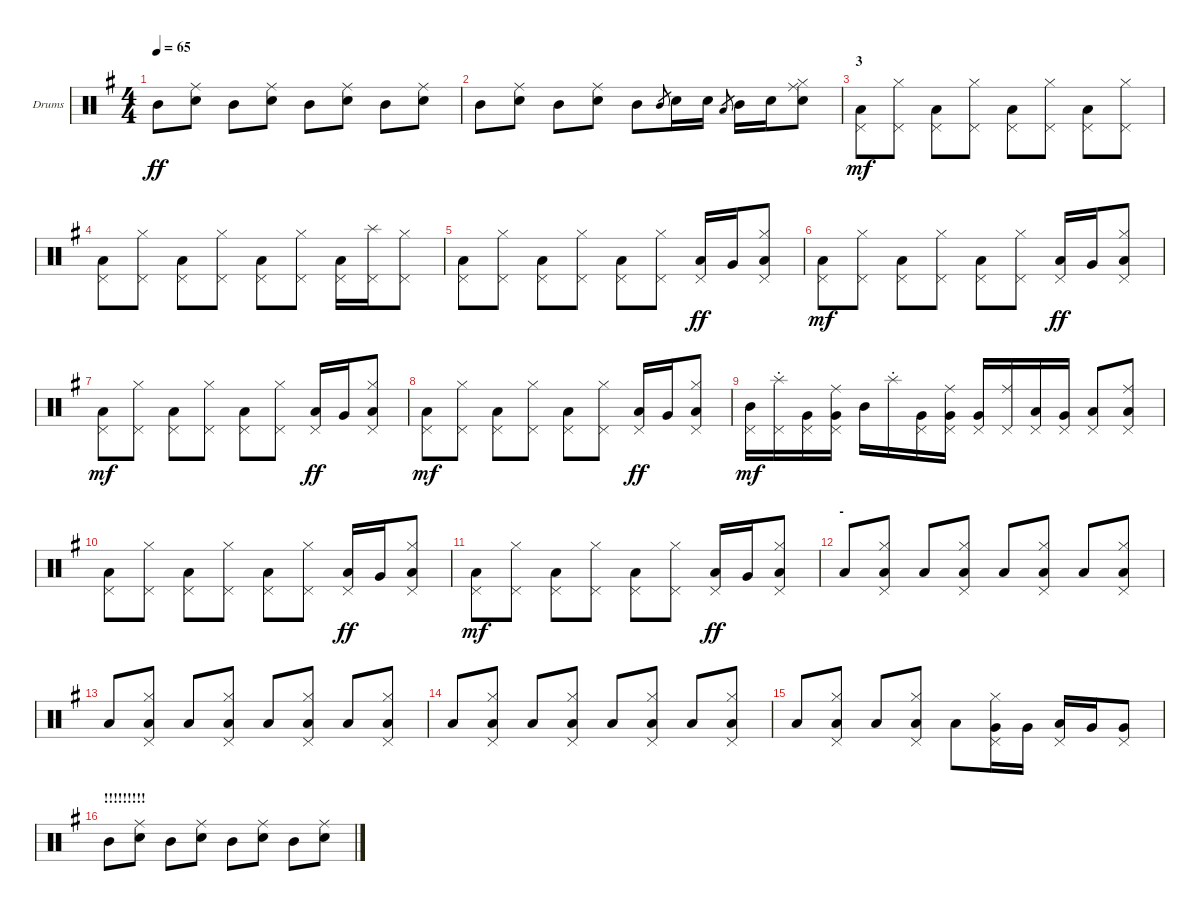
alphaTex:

\defaultSystemsLayout 4
\bracketExtendMode groupsimilarinstruments
\firstSystemTrackNameOrientation horizontal
\otherSystemsTrackNameOrientation horizontal
\track ("Drumkit" "Drums") {instrument percussion}
\staff {score}
\articulation defaults
\ts (4 4)
\tempo 65
\clef neutral
\ks eminor "Mid Tom (hit)".8{dy ff}
("Snare (hit) 2" "Ride (middle)").8 "Mid Tom (hit)".8 ("Snare (hit) 2" "Ride (middle)").8 "Mid Tom (hit)".8 ("Snare (hit) 2" "Ride (middle)").8 "Mid Tom (hit)".8 ("Snare (hit) 2" "Ride (middle)").8 |
"Mid Tom (hit)".8 ("Snare (hit) 2" "Ride (middle)").8 "Mid Tom (hit)".8 ("Snare (hit) 2" "Ride (middle)").8 "Mid Tom (hit)".8 "Mid Tom (hit)".8{gr} "Snare (hit) 2".16 "Snare (hit) 2".16 "Low Tom (hit)".8{gr} "Mid Tom (hit)".16 "Snare (hit) 2".16 ("Snare (hit) 2" "Hi-Hat (closed)" "Ride (middle)").8 |
\section ("" "3")
("Pedal Hi-Hat (hit)" "Low Tom (hit)").8{dy mf} ("Pedal Hi-Hat (hit)" "Hi-Hat (closed)").8 ("Pedal Hi-Hat (hit)" "Low Tom (hit)").8 ("Pedal Hi-Hat (hit)" "Hi-Hat (closed)").8 ("Pedal Hi-Hat (hit)" "Low Tom (hit)").8 ("Pedal Hi-Hat (hit)" "Hi-Hat (closed)").8 ("Pedal Hi-Hat (hit)" "Low Tom (hit)").8 ("Pedal Hi-Hat (hit)" "Hi-Hat (closed)").8 |
("Pedal Hi-Hat (hit)" "Low Tom (hit)").8 ("Pedal Hi-Hat (hit)" "Hi-Hat (closed)").8 ("Pedal Hi-Hat (hit)" "Low Tom (hit)").8 ("Pedal Hi-Hat (hit)" "Hi-Hat (closed)").8 ("Pedal Hi-Hat (hit)" "Low Tom (hit)").8 ("Pedal Hi-Hat (hit)" "Hi-Hat (closed)").8 ("Pedal Hi-Hat (hit)" "Low Tom (hit)").16 ("Pedal Hi-Hat (hit)" "Splash (hit)").16 ("Hi-Hat (closed)" "Pedal Hi-Hat (hit)").8 |
("Pedal Hi-Hat (hit)" "Low Tom (hit)").8 ("Pedal Hi-Hat (hit)" "Hi-Hat (closed)").8 ("Pedal Hi-Hat (hit)" "Low Tom (hit)").8 ("Pedal Hi-Hat (hit)" "Hi-Hat (closed)").8 ("Pedal Hi-Hat (hit)" "Low Tom (hit)").8 ("Pedal Hi-Hat (hit)" "Hi-Hat (closed)").8 ("Pedal Hi-Hat (hit)" "Low Tom (hit)").16{dy ff} "Very Low Tom (hit)".16 ("Hi-Hat (closed)" "Pedal Hi-Hat (hit)" "Low Tom (hit)").8 |
("Pedal Hi-Hat (hit)" "Low Tom (hit)").8{dy mf} ("Pedal Hi-Hat (hit)" "Hi-Hat (closed)").8 ("Pedal Hi-Hat (hit)" "Low Tom (hit)").8 ("Pedal Hi-Hat (hit)" "Hi-Hat (closed)").8 ("Pedal Hi-Hat (hit)" "Low Tom (hit)").8 ("Pedal Hi-Hat (hit)" "Hi-Hat (closed)").8 ("Pedal Hi-Hat (hit)" "Low Tom (hit)").16{dy ff} "Very Low Tom (hit)".16 ("Hi-Hat (closed)" "Pedal Hi-Hat (hit)" "Low Tom (hit)").8 |
("Pedal Hi-Hat (hit)" "Low Tom (hit)").8{dy mf} ("Pedal Hi-Hat (hit)" "Hi-Hat (closed)").8 ("Pedal Hi-Hat (hit)" "Low Tom (hit)").8 ("Pedal Hi-Hat (hit)" "Hi-Hat (closed)").8 ("Pedal Hi-Hat (hit)" "Low Tom (hit)").8 ("Pedal Hi-Hat (hit)" "Hi-Hat (closed)").8 ("Pedal Hi-Hat (hit)" "Low Tom (hit)").16{dy ff} "Very Low Tom (hit)".16 ("Hi-Hat (closed)" "Pedal Hi-Hat (hit)" "Low Tom (hit)").8 |
("Pedal Hi-Hat (hit)" "Low Tom (hit)").8{dy mf} ("Pedal Hi-Hat (hit)" "Hi-Hat (closed)").8 ("Pedal Hi-Hat (hit)" "Low Tom (hit)").8 ("Pedal Hi-Hat (hit)" "Hi-Hat (closed)").8 ("Pedal Hi-Hat (hit)" "Low Tom (hit)").8 ("Pedal Hi-Hat (hit)" "Hi-Hat (closed)").8 ("Pedal Hi-Hat (hit)" "Low Tom (hit)").16{dy ff} "Very Low Tom (hit)".16 ("Hi-Hat (closed)" "Pedal Hi-Hat (hit)" "Low Tom (hit)").8 |
("Mid Tom (hit)" "Pedal Hi-Hat (hit)").16{dy mf} ("Splash (hit)"{st} "Pedal Hi-Hat (hit)").16 ("Pedal Hi-Hat (hit)" "Very Low Tom (hit)").16 ("Ride (middle)" "Pedal Hi-Hat (hit)" "Very Low Tom (hit)").16 "Mid Tom (hit)".16 "Splash (hit)"{st}.16 ("Pedal Hi-Hat (hit)" "Very Low Tom (hit)").16 ("Ride (middle)" "Pedal Hi-Hat (hit)" "Very Low Tom (hit)").16 ("Very Low Tom (hit)" "Pedal Hi-Hat (hit)").16 ("Ride (middle)" "Pedal Hi-Hat (hit)").16 ("Pedal Hi-Hat (hit)" "Low Tom (hit)").16 ("Very Low Tom (hit)" "Pedal Hi-Hat (hit)").16 ("Pedal Hi-Hat (hit)" "Low Tom (hit)").8 ("Pedal Hi-Hat (hit)" "Ride (middle)" "Low Tom (hit)").8 |
("Pedal Hi-Hat (hit)" "Low Tom (hit)").8 ("Pedal Hi-Hat (hit)" "Hi-Hat (closed)").8 ("Pedal Hi-Hat (hit)" "Low Tom (hit)").8 ("Pedal Hi-Hat (hit)" "Hi-Hat (closed)").8 ("Pedal Hi-Hat (hit)" "Low Tom (hit)").8 ("Pedal Hi-Hat (hit)" "Hi-Hat (closed)").8 ("Pedal Hi-Hat (hit)" "Low Tom (hit)").16{dy ff} "Very Low Tom (hit)".16 ("Hi-Hat (closed)" "Pedal Hi-Hat (hit)" "Low Tom (hit)").8 |
("Pedal Hi-Hat (hit)" "Low Tom (hit)").8{dy mf} ("Pedal Hi-Hat (hit)" "Hi-Hat (closed)").8 ("Pedal Hi-Hat (hit)" "Low Tom (hit)").8 ("Pedal Hi-Hat (hit)" "Hi-Hat (closed)").8 ("Pedal Hi-Hat (hit)" "Low Tom (hit)").8 ("Pedal Hi-Hat (hit)" "Hi-Hat (closed)").8 ("Pedal Hi-Hat (hit)" "Low Tom (hit)").16{dy ff} "Very Low Tom (hit)".16 ("Hi-Hat (closed)" "Pedal Hi-Hat (hit)" "Low Tom (hit)").8 |
\section ("" "-")
"Low Tom (hit)".8 ("Hi-Hat (closed)" "Pedal Hi-Hat (hit)" "Low Tom (hit)").8 "Low Tom (hit)".8 ("Hi-Hat (closed)" "Low Tom (hit)" "Pedal Hi-Hat (hit)").8 "Low Tom (hit)".8 ("Pedal Hi-Hat (hit)" "Hi-Hat (closed)" "Low Tom (hit)").8 "Low Tom (hit)".8 ("Hi-Hat (closed)" "Pedal Hi-Hat (hit)" "Low Tom (hit)").8 |
"Low Tom (hit)".8 ("Hi-Hat (closed)" "Pedal Hi-Hat (hit)" "Low Tom (hit)").8 "Low Tom (hit)".8 ("Hi-Hat (closed)" "Low Tom (hit)" "Pedal Hi-Hat (hit)").8 "Low Tom (hit)".8 ("Pedal Hi-Hat (hit)" "Hi-Hat (closed)" "Low Tom (hit)").8 "Low Tom (hit)".8 ("Hi-Hat (closed)" "Pedal Hi-Hat (hit)" "Low Tom (hit)").8 |
"Low Tom (hit)".8 ("Hi-Hat (closed)" "Pedal Hi-Hat (hit)" "Low Tom (hit)").8 "Low Tom (hit)".8 ("Hi-Hat (closed)" "Low Tom (hit)" "Pedal Hi-Hat (hit)").8 "Low Tom (hit)".8 ("Pedal Hi-Hat (hit)" "Hi-Hat (closed)" "Low Tom (hit)").8 "Low Tom (hit)".8 ("Hi-Hat (closed)" "Pedal Hi-Hat (hit)" "Low Tom (hit)").8 |
"Low Tom (hit)".8 ("Hi-Hat (closed)" "Pedal Hi-Hat (hit)" "Low Tom (hit)").8 "Low Tom (hit)".8 ("Hi-Hat (closed)" "Low Tom (hit)" "Pedal Hi-Hat (hit)").8 "Low Tom (hit)".8 ("Very Low Tom (hit)" "Pedal Hi-Hat (hit)" "Hi-Hat (closed)").16 "Very Low Tom (hit)".16 ("Pedal Hi-Hat (hit)" "Low Tom (hit)").16 "Very Low Tom (hit)".16 ("Very Low Tom (hit)" "Pedal Hi-Hat (hit)").8 |
\section ("" "!!!!!!!!!")
"Mid Tom (hit)".8 ("Snare (hit) 2" "Ride (middle)").8 "Mid Tom (hit)".8 ("Snare (hit) 2" "Ride (middle)").8 "Mid Tom (hit)".8 ("Snare (hit) 2" "Ride (middle)").8 "Mid Tom (hit)".8 ("Snare (hit) 2" "Ride (middle)").8
